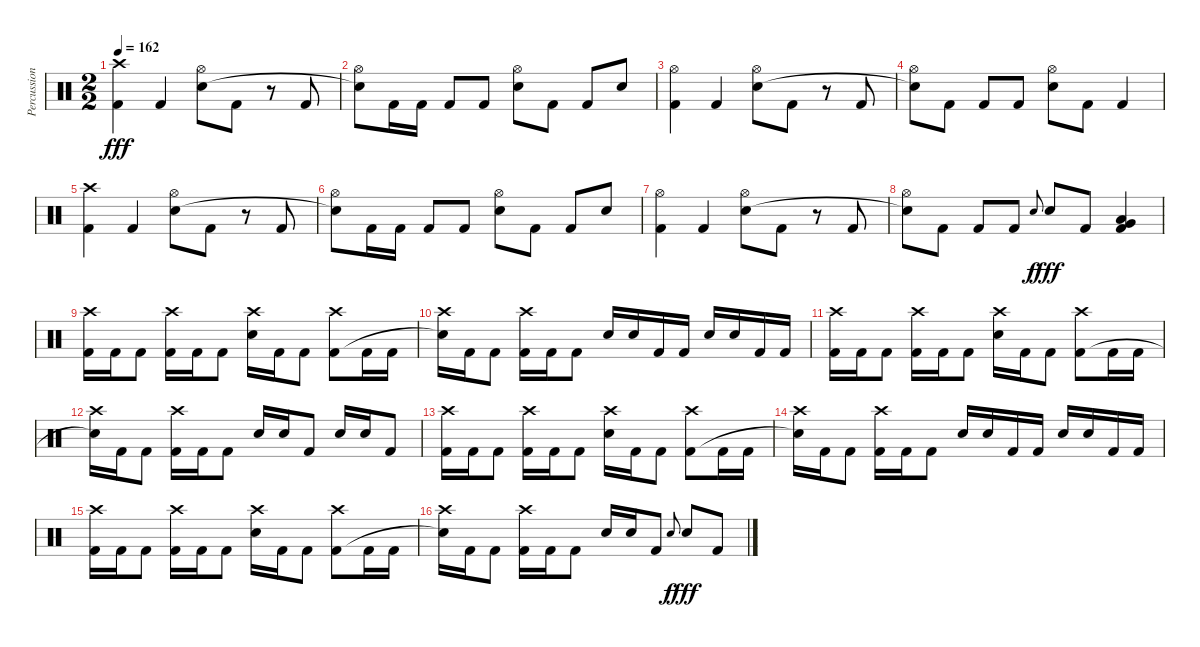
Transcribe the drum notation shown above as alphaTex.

\track ("Percussion" "Percussion") {instrument percussion}
\staff {score}
\articulation defaults
\ts (2 2)
\tempo 162
\clef neutral
\ks c
("Crash high (hit)" "Kick (hit) 2").4{dy fff} "Kick (hit) 2".4 ("Hi-Hat (open)" "Snare (hit) 2").8 "Kick (hit) 2".8 r.8 "Kick (hit) 2".8 |
("Hi-Hat (open)" "Snare (hit)"{t}).8 "Kick (hit) 2".16 "Kick (hit) 2".16 "Kick (hit) 2".8 "Kick (hit) 2".8 ("Hi-Hat (open)" "Snare (hit) 2").8 "Kick (hit) 2".8 "Kick (hit) 2".8 "Snare (hit) 2".8 |
("Hi-Hat (open)" "Kick (hit) 2").4 "Kick (hit) 2".4 ("Hi-Hat (open)" "Snare (hit) 2").8 "Kick (hit) 2".8 r.8 "Kick (hit) 2".8 |
("Hi-Hat (open)" "Snare (hit)"{t}).8 "Kick (hit) 2".8 "Kick (hit) 2".8 "Kick (hit) 2".8 ("Hi-Hat (open)" "Snare (hit) 2").8 "Kick (hit) 2".8 "Kick (hit) 2".4 |
("Crash high (hit)" "Kick (hit) 2").4 "Kick (hit) 2".4 ("Hi-Hat (open)" "Snare (hit) 2").8 "Kick (hit) 2".8 r.8 "Kick (hit) 2".8 |
("Hi-Hat (open)" "Snare (hit)"{t}).8 "Kick (hit) 2".16 "Kick (hit) 2".16 "Kick (hit) 2".8 "Kick (hit) 2".8 ("Hi-Hat (open)" "Snare (hit) 2").8 "Kick (hit) 2".8 "Kick (hit) 2".8 "Snare (hit) 2".8 |
("Hi-Hat (open)" "Kick (hit) 2").4 "Kick (hit) 2".4 ("Hi-Hat (open)" "Snare (hit) 2").8 "Kick (hit) 2".8 r.8 "Kick (hit) 2".8 |
("Hi-Hat (open)" "Snare (hit)"{t}).8 "Kick (hit) 2".8 "Kick (hit) 2".8 "Kick (hit) 2".8 "Snare (hit) 2".8{gr onbeat dy f} "Snare (hit) 2".8{dy fff} "Kick (hit) 2".8 ("Very Low Tom (hit)" "Low Floor Tom (hit)" "Kick (hit) 2").4 |
("Crash high (hit)" "Kick (hit) 2").16 "Kick (hit) 2".16 "Kick (hit) 2".8 ("Crash high (hit)" "Kick (hit) 2").16 "Kick (hit) 2".16 "Kick (hit) 2".8 ("Crash high (hit)" "Snare (hit) 2").16 "Kick (hit) 2".16 "Kick (hit) 2".8 ("Crash high (hit)" "Kick (hit) 2").8 "Kick (hit) 2".16 "Kick (hit) 2".16 |
("Crash high (hit)" "Snare (hit)"{t}).16 "Kick (hit) 2".16 "Kick (hit) 2".8 ("Crash high (hit)" "Kick (hit) 2").16 "Kick (hit) 2".16 "Kick (hit) 2".8 "Snare (hit) 2".16 "Snare (hit) 2".16 "Kick (hit) 2".16 "Kick (hit) 2".16 "Snare (hit) 2".16 "Snare (hit) 2".16 "Kick (hit) 2".16 "Kick (hit) 2".16 |
("Crash high (hit)" "Kick (hit) 2").16 "Kick (hit) 2".16 "Kick (hit) 2".8 ("Crash high (hit)" "Kick (hit) 2").16 "Kick (hit) 2".16 "Kick (hit) 2".8 ("Crash high (hit)" "Snare (hit) 2").16 "Kick (hit) 2".16 "Kick (hit) 2".8 ("Crash high (hit)" "Kick (hit) 2").8 "Kick (hit) 2".16 "Kick (hit) 2".16 |
("Crash high (hit)" "Snare (hit)"{t}).16 "Kick (hit) 2".16 "Kick (hit) 2".8 ("Crash high (hit)" "Kick (hit) 2").16 "Kick (hit) 2".16 "Kick (hit) 2".8 "Snare (hit) 2".16 "Snare (hit) 2".16 "Kick (hit) 2".8 "Snare (hit) 2".16 "Snare (hit) 2".16 "Kick (hit) 2".8 |
("Crash high (hit)" "Kick (hit) 2").16 "Kick (hit) 2".16 "Kick (hit) 2".8 ("Crash high (hit)" "Kick (hit) 2").16 "Kick (hit) 2".16 "Kick (hit) 2".8 ("Crash high (hit)" "Snare (hit) 2").16 "Kick (hit) 2".16 "Kick (hit) 2".8 ("Crash high (hit)" "Kick (hit) 2").8 "Kick (hit) 2".16 "Kick (hit) 2".16 |
("Crash high (hit)" "Snare (hit)"{t}).16 "Kick (hit) 2".16 "Kick (hit) 2".8 ("Crash high (hit)" "Kick (hit) 2").16 "Kick (hit) 2".16 "Kick (hit) 2".8 "Snare (hit) 2".16 "Snare (hit) 2".16 "Kick (hit) 2".16 "Kick (hit) 2".16 "Snare (hit) 2".16 "Snare (hit) 2".16 "Kick (hit) 2".16 "Kick (hit) 2".16 |
("Crash high (hit)" "Kick (hit) 2").16 "Kick (hit) 2".16 "Kick (hit) 2".8 ("Crash high (hit)" "Kick (hit) 2").16 "Kick (hit) 2".16 "Kick (hit) 2".8 ("Crash high (hit)" "Snare (hit) 2").16 "Kick (hit) 2".16 "Kick (hit) 2".8 ("Crash high (hit)" "Kick (hit) 2").8 "Kick (hit) 2".16 "Kick (hit) 2".16 |
("Crash high (hit)" "Snare (hit)"{t}).16 "Kick (hit) 2".16 "Kick (hit) 2".8 ("Crash high (hit)" "Kick (hit) 2").16 "Kick (hit) 2".16 "Kick (hit) 2".8 "Snare (hit) 2".16 "Snare (hit) 2".16 "Kick (hit) 2".8 "Snare (hit) 2".8{gr onbeat dy f} "Snare (hit) 2".8{dy fff} "Kick (hit) 2".8
